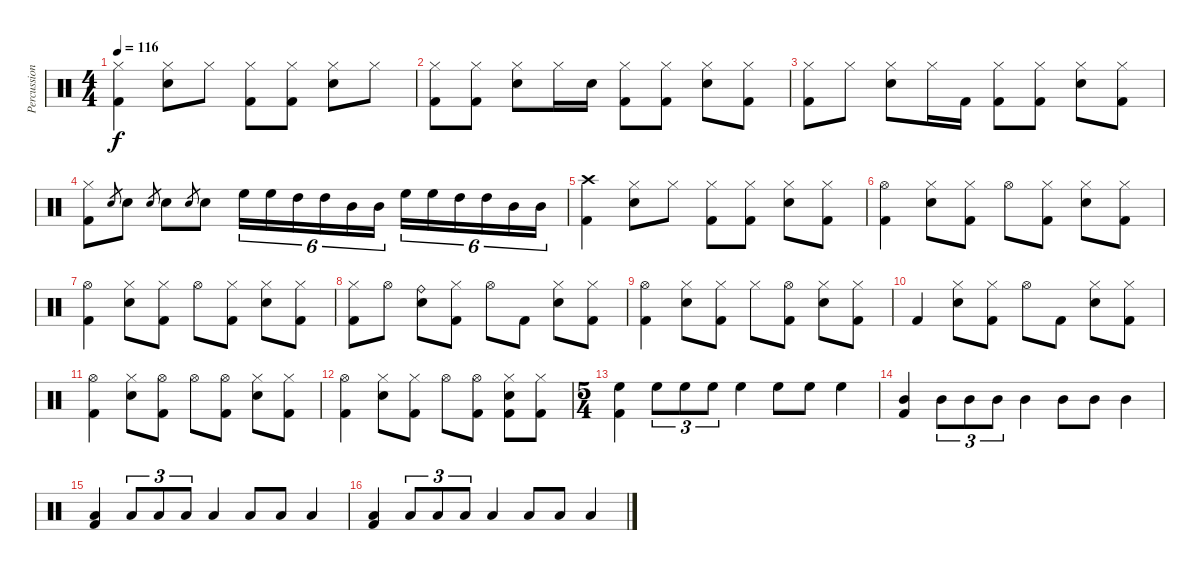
\track ("Percussion" "Percussion") {instrument percussion}
\staff {score}
\articulation defaults
\ts (4 4)
\tempo 116
\clef neutral
\ks c
("Kick (hit) 2" "Hi-Hat (closed)").4{dy f} ("Snare (hit) 2" "Hi-Hat (closed)").8 "Hi-Hat (closed)".8 ("Kick (hit) 2" "Hi-Hat (closed)").8 ("Kick (hit) 2" "Hi-Hat (closed)").8 ("Snare (hit) 2" "Hi-Hat (closed)").8 "Hi-Hat (closed)".8 |
("Kick (hit) 2" "Hi-Hat (closed)").8 ("Kick (hit) 2" "Hi-Hat (closed)").8 ("Snare (hit) 2" "Hi-Hat (closed)").8 "Hi-Hat (closed)".16 "Snare (hit) 2".16 ("Kick (hit) 2" "Hi-Hat (closed)").8 ("Kick (hit) 2" "Hi-Hat (closed)").8 ("Snare (hit) 2" "Hi-Hat (closed)").8 ("Kick (hit) 2" "Hi-Hat (closed)").8 |
("Kick (hit) 2" "Hi-Hat (closed)").8 "Hi-Hat (closed)".8 ("Snare (hit) 2" "Hi-Hat (closed)").8 "Hi-Hat (closed)".16 "Kick (hit) 2".16 ("Kick (hit) 2" "Hi-Hat (closed)").8 ("Kick (hit) 2" "Hi-Hat (closed)").8 ("Snare (hit) 2" "Hi-Hat (closed)").8 ("Kick (hit) 2" "Hi-Hat (closed)").8 |
("Kick (hit) 2" "Hi-Hat (closed)").8 "Snare (hit) 2".8{gr} "Snare (hit) 2".8 "Snare (hit) 2".8{gr} "Snare (hit) 2".8 "Snare (hit) 2".8{gr} "Snare (hit) 2".8 "High Floor Tom (hit)".16{tu (6 4)} "High Floor Tom (hit)".16{tu (6 4)} "High Tom (hit)".16{tu (6 4)} "High Tom (hit)".16{tu (6 4)} "Mid Tom (hit)".16{tu (6 4)} "Mid Tom (hit)".16{tu (6 4)} "High Floor Tom (hit)".16{tu (6 4)} "High Floor Tom (hit)".16{tu (6 4)} "High Tom (hit)".16{tu (6 4)} "High Tom (hit)".16{tu (6 4)} "Mid Tom (hit)".16{tu (6 4)} "Mid Tom (hit)".16{tu (6 4)} |
("Kick (hit) 2" "Crash high (hit)").4 ("Snare (hit) 2" "Hi-Hat (closed)").8 "Hi-Hat (closed)".8 ("Kick (hit) 2" "Hi-Hat (closed)").8 ("Kick (hit) 2" "Hi-Hat (closed)").8 ("Snare (hit) 2" "Hi-Hat (closed)").8 ("Kick (hit) 2" "Hi-Hat (closed)").8 |
("Kick (hit) 2" "Hi-Hat (open)").4 ("Snare (hit) 2" "Hi-Hat (closed)").8 ("Kick (hit) 2" "Hi-Hat (closed)").8 "Hi-Hat (open)".8 ("Kick (hit) 2" "Hi-Hat (closed)").8 ("Snare (hit) 2" "Hi-Hat (closed)").8 ("Kick (hit) 2" "Hi-Hat (closed)").8 |
("Kick (hit) 2" "Hi-Hat (open)").4 ("Snare (hit) 2" "Hi-Hat (closed)").8 ("Kick (hit) 2" "Hi-Hat (closed)").8 "Hi-Hat (open)".8 ("Kick (hit) 2" "Hi-Hat (closed)").8 ("Snare (hit) 2" "Hi-Hat (closed)").8 ("Kick (hit) 2" "Hi-Hat (closed)").8 |
("Kick (hit) 2" "Hi-Hat (closed)").8 "Hi-Hat (open)".8 ("Snare (hit) 2" "Ride (bell)").8 ("Kick (hit) 2" "Hi-Hat (closed)").8 "Hi-Hat (open)".8 "Kick (hit) 2".8 ("Snare (hit) 2" "Hi-Hat (closed)").8 ("Kick (hit) 2" "Hi-Hat (closed)").8 |
("Kick (hit) 2" "Hi-Hat (open)").4 ("Snare (hit) 2" "Hi-Hat (closed)").8 ("Kick (hit) 2" "Hi-Hat (closed)").8 "Hi-Hat (closed)".8 ("Kick (hit) 2" "Hi-Hat (open)").8 ("Snare (hit) 2" "Hi-Hat (closed)").8 ("Kick (hit) 2" "Hi-Hat (closed)").8 |
"Kick (hit) 2".4 ("Snare (hit) 2" "Hi-Hat (closed)").8 ("Kick (hit) 2" "Hi-Hat (closed)").8 "Hi-Hat (open)".8 "Kick (hit) 2".8 ("Snare (hit) 2" "Hi-Hat (closed)").8 ("Kick (hit) 2" "Hi-Hat (closed)").8 |
("Kick (hit) 2" "Hi-Hat (open)").4 ("Snare (hit) 2" "Hi-Hat (closed)").8 ("Kick (hit) 2" "Hi-Hat (open)").8 "Hi-Hat (open)".8 ("Kick (hit) 2" "Hi-Hat (open)").8 ("Snare (hit) 2" "Hi-Hat (closed)").8 ("Kick (hit) 2" "Hi-Hat (closed)").8 |
("Kick (hit) 2" "Hi-Hat (open)").4 ("Snare (hit) 2" "Hi-Hat (closed)").8 ("Kick (hit) 2" "Hi-Hat (closed)").8 "Hi-Hat (open)".8 ("Kick (hit) 2" "Hi-Hat (open)").8 ("Kick (hit) 2" "Snare (hit) 2" "Hi-Hat (closed)").8 ("Kick (hit) 2" "Hi-Hat (closed)").8 |
\ts (5 4)
("Kick (hit) 2" "High Floor Tom (hit)").4 "High Floor Tom (hit)".8{tu (3 2)} "High Floor Tom (hit)".8{tu (3 2)} "High Floor Tom (hit)".8{tu (3 2)} "High Floor Tom (hit)".4 "High Floor Tom (hit)".8 "High Floor Tom (hit)".8 "High Floor Tom (hit)".4 |
("Kick (hit) 2" "Mid Tom (hit)").4 "Mid Tom (hit)".8{tu (3 2)} "Mid Tom (hit)".8{tu (3 2)} "Mid Tom (hit)".8{tu (3 2)} "Mid Tom (hit)".4 "Mid Tom (hit)".8 "Mid Tom (hit)".8 "Mid Tom (hit)".4 |
("Kick (hit) 2" "Low Tom (hit)").4 "Low Tom (hit)".8{tu (3 2)} "Low Tom (hit)".8{tu (3 2)} "Low Tom (hit)".8{tu (3 2)} "Low Tom (hit)".4 "Low Tom (hit)".8 "Low Tom (hit)".8 "Low Tom (hit)".4 |
("Kick (hit) 2" "Low Floor Tom (hit)").4 "Low Floor Tom (hit)".8{tu (3 2)} "Low Floor Tom (hit)".8{tu (3 2)} "Low Floor Tom (hit)".8{tu (3 2)} "Low Floor Tom (hit)".4 "Low Floor Tom (hit)".8 "Low Floor Tom (hit)".8 "Low Floor Tom (hit)".4
